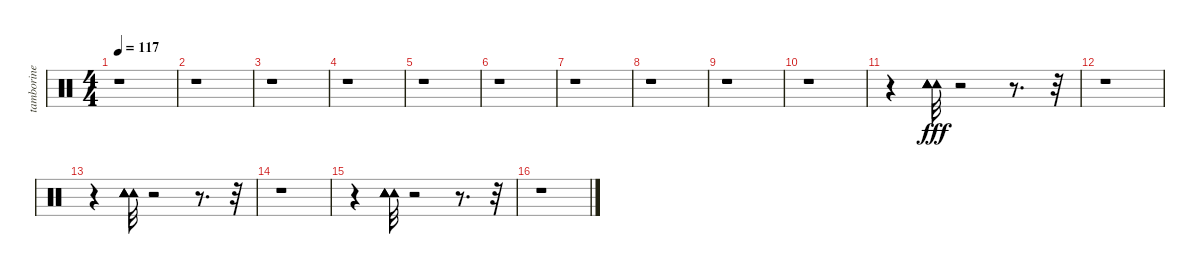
\track ("tamborine" "tamborine") {instrument percussion}
\staff {score}
\articulation defaults
\ts (4 4)
\tempo 117
\clef neutral
\ks c
r.1{dy fff} |
r.1 |
r.1 |
r.1 |
r.1 |
r.1 |
r.1 |
r.1 |
r.1 |
r.1 |
r.4 ("Tambourine (hit)" "Tambourine (hit)" "Tambourine (hit)" "Tambourine (hit)").32 r.2 r.8{d} r.32 |
r.1 |
r.4 ("Tambourine (hit)" "Tambourine (hit)" "Tambourine (hit)" "Tambourine (hit)").32 r.2 r.8{d} r.32 |
r.1 |
r.4 ("Tambourine (hit)" "Tambourine (hit)" "Tambourine (hit)" "Tambourine (hit)").32 r.2 r.8{d} r.32 |
r.1
